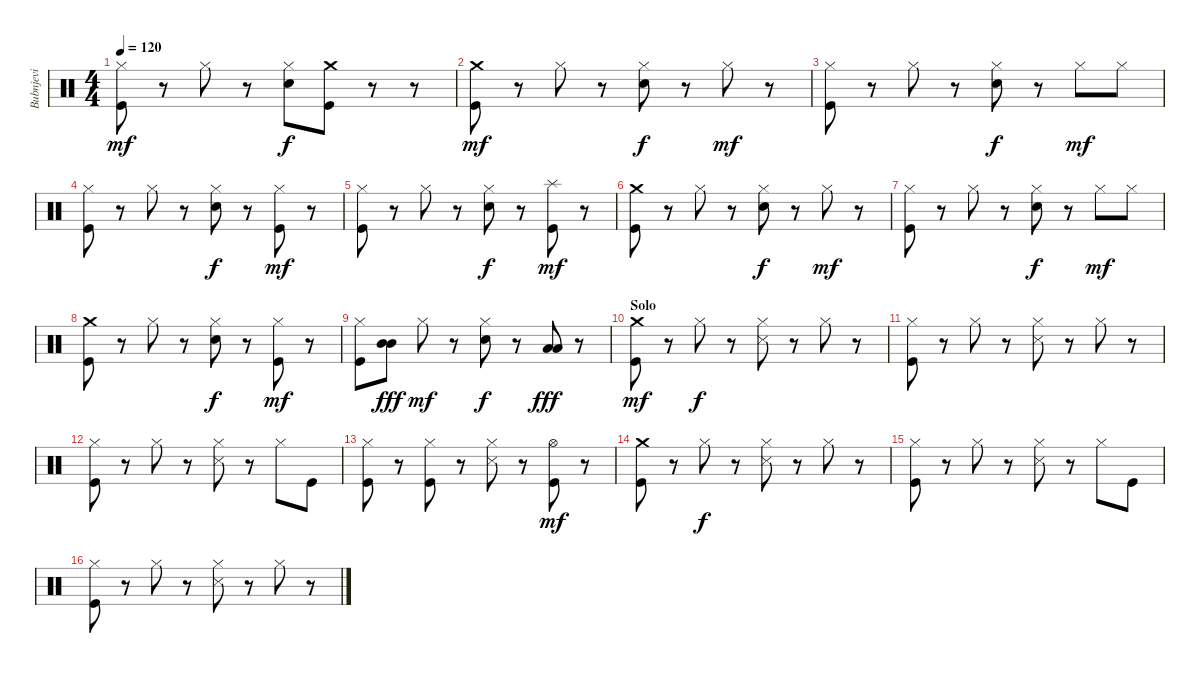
\track ("Bubnjevi" "Bubnjevi") {instrument percussion}
\staff {score}
\articulation defaults
\ts (4 4)
\tempo 120
\clef neutral
\ks c
("Hi-Hat (closed)" "Kick (hit)").8{dy mf} r.8 "Hi-Hat (closed)".8 r.8 ("Hi-Hat (closed)" "Snare (hit) 2").8{dy f} ("Crash medium (hit)" "Kick (hit)").8 r.8 r.8 |
("Crash medium (hit)" "Kick (hit)").8{dy mf} r.8 "Hi-Hat (closed)".8 r.8 ("Hi-Hat (closed)" "Snare (hit) 2").8{dy f} r.8 "Hi-Hat (closed)".8{dy mf} r.8 |
("Hi-Hat (closed)" "Kick (hit)").8 r.8 "Hi-Hat (closed)".8 r.8 ("Hi-Hat (closed)" "Snare (hit) 2").8{dy f} r.8 "Hi-Hat (closed)".8{dy mf} "Hi-Hat (closed)".8 |
("Hi-Hat (closed)" "Kick (hit)").8 r.8 "Hi-Hat (closed)".8 r.8 ("Hi-Hat (closed)" "Snare (hit) 2").8{dy f} r.8 ("Hi-Hat (closed)" "Kick (hit)").8{dy mf} r.8 |
("Hi-Hat (closed)" "Kick (hit)").8 r.8 "Hi-Hat (closed)".8 r.8 ("Hi-Hat (closed)" "Snare (hit) 2").8{dy f} r.8 ("Splash (hit)" "Kick (hit)").8{dy mf} r.8 |
("Crash medium (hit)" "Kick (hit)").8 r.8 "Hi-Hat (closed)".8 r.8 ("Hi-Hat (closed)" "Snare (hit) 2").8{dy f} r.8 "Hi-Hat (closed)".8{dy mf} r.8 |
("Hi-Hat (closed)" "Kick (hit)").8 r.8 "Hi-Hat (closed)".8 r.8 ("Hi-Hat (closed)" "Snare (hit) 2").8{dy f} r.8 "Hi-Hat (closed)".8{dy mf} "Hi-Hat (closed)".8 |
("Crash medium (hit)" "Kick (hit)").8 r.8 "Hi-Hat (closed)".8 r.8 ("Hi-Hat (closed)" "Snare (hit) 2").8{dy f} r.8 ("Hi-Hat (closed)" "Kick (hit)").8{dy mf} r.8 |
("Hi-Hat (closed)" "Kick (hit)").8 ("Mid Tom (hit)" "Mid Tom (hit)").8{bd 30 dy fff} "Hi-Hat (closed)".8{dy mf} r.8 ("Hi-Hat (closed)" "Snare (hit) 2").8{dy f} r.8 ("Low Tom (hit)" "Low Tom (hit)").8{bd 30 dy fff} r.8 |
\section ("" "Solo")
("Crash medium (hit)" "Kick (hit)").8{dy mf} r.8 "Hi-Hat (closed)".8{dy f} r.8 ("Hi-Hat (closed)" "Snare (side stick) 3").8 r.8 "Hi-Hat (closed)".8 r.8 |
("Hi-Hat (closed)" "Kick (hit)").8 r.8 "Hi-Hat (closed)".8 r.8 ("Hi-Hat (closed)" "Snare (side stick) 3").8 r.8 "Hi-Hat (closed)".8 r.8 |
("Hi-Hat (closed)" "Kick (hit)").8 r.8 "Hi-Hat (closed)".8 r.8 ("Hi-Hat (closed)" "Snare (side stick) 3").8 r.8 "Hi-Hat (closed)".8 "Kick (hit)".8 |
("Hi-Hat (closed)" "Kick (hit)").8 r.8 ("Hi-Hat (closed)" "Kick (hit)").8 r.8 ("Hi-Hat (closed)" "Snare (side stick) 3").8 r.8 ("Hi-Hat (open)" "Kick (hit)").8{dy mf} r.8 |
("Crash medium (hit)" "Kick (hit)").8 r.8 "Hi-Hat (closed)".8{dy f} r.8 ("Hi-Hat (closed)" "Snare (side stick) 3").8 r.8 "Hi-Hat (closed)".8 r.8 |
("Hi-Hat (closed)" "Kick (hit)").8 r.8 "Hi-Hat (closed)".8 r.8 ("Hi-Hat (closed)" "Snare (side stick) 3").8 r.8 "Hi-Hat (closed)".8 "Kick (hit)".8 |
("Hi-Hat (closed)" "Kick (hit)").8 r.8 "Hi-Hat (closed)".8 r.8 ("Hi-Hat (closed)" "Snare (side stick) 3").8 r.8 "Hi-Hat (closed)".8 r.8
